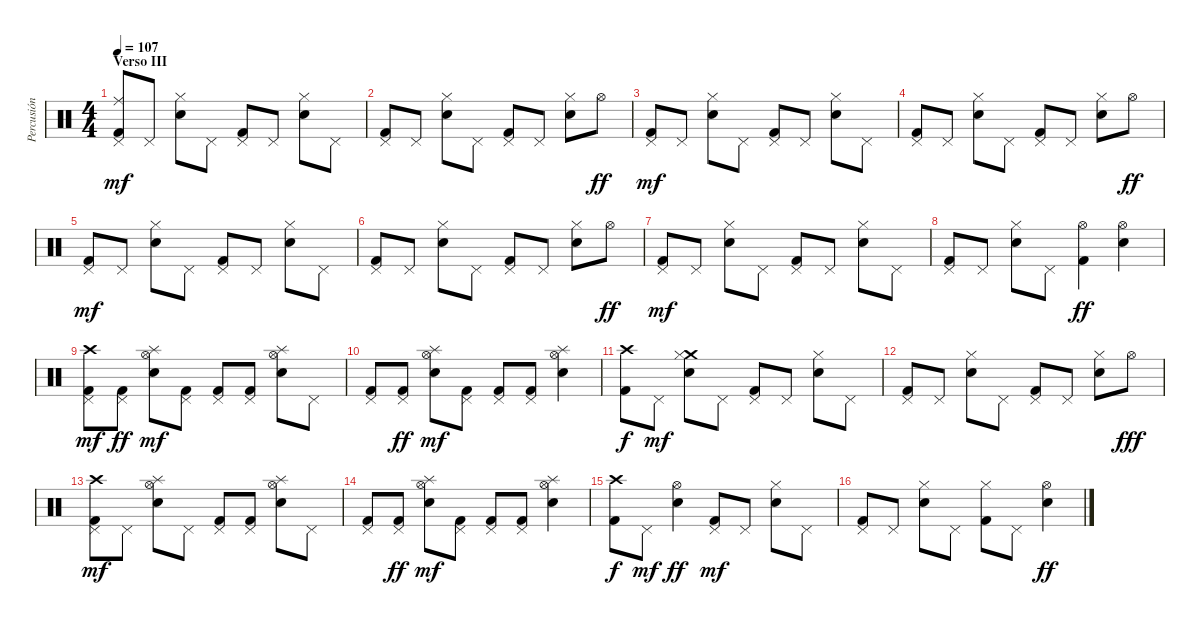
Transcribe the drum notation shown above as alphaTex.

\track ("Percusión" "Percusión") {instrument percussion}
\staff {score}
\articulation defaults
\ts (4 4)
\section ("" "Verso III")
\tempo 107
\clef neutral
\ks c
("Ride (middle)" "Pedal Hi-Hat (hit)" "Kick (hit) 2").8{dy mf} "Pedal Hi-Hat (hit)".8 ("Hi-Hat (closed)" "Snare (hit) 2").8 "Pedal Hi-Hat (hit)".8 ("Pedal Hi-Hat (hit)" "Kick (hit) 2").8 "Pedal Hi-Hat (hit)".8 ("Hi-Hat (closed)" "Snare (hit) 2").8 "Pedal Hi-Hat (hit)".8 |
("Pedal Hi-Hat (hit)" "Kick (hit) 2").8 "Pedal Hi-Hat (hit)".8 ("Hi-Hat (closed)" "Snare (hit) 2").8 "Pedal Hi-Hat (hit)".8 ("Pedal Hi-Hat (hit)" "Kick (hit) 2").8 "Pedal Hi-Hat (hit)".8 ("Hi-Hat (closed)" "Snare (hit) 2").8 "Hi-Hat (open)".8{dy ff} |
("Pedal Hi-Hat (hit)" "Kick (hit) 2").8{dy mf} "Pedal Hi-Hat (hit)".8 ("Hi-Hat (closed)" "Snare (hit) 2").8 "Pedal Hi-Hat (hit)".8 ("Pedal Hi-Hat (hit)" "Kick (hit) 2").8 "Pedal Hi-Hat (hit)".8 ("Hi-Hat (closed)" "Snare (hit) 2").8 "Pedal Hi-Hat (hit)".8 |
("Pedal Hi-Hat (hit)" "Kick (hit) 2").8 "Pedal Hi-Hat (hit)".8 ("Hi-Hat (closed)" "Snare (hit) 2").8 "Pedal Hi-Hat (hit)".8 ("Pedal Hi-Hat (hit)" "Kick (hit) 2").8 "Pedal Hi-Hat (hit)".8 ("Hi-Hat (closed)" "Snare (hit) 2").8 "Hi-Hat (open)".8{dy ff} |
("Pedal Hi-Hat (hit)" "Kick (hit) 2").8{dy mf} "Pedal Hi-Hat (hit)".8 ("Hi-Hat (closed)" "Snare (hit) 2").8 "Pedal Hi-Hat (hit)".8 ("Pedal Hi-Hat (hit)" "Kick (hit) 2").8 "Pedal Hi-Hat (hit)".8 ("Hi-Hat (closed)" "Snare (hit) 2").8 "Pedal Hi-Hat (hit)".8 |
("Pedal Hi-Hat (hit)" "Kick (hit) 2").8 "Pedal Hi-Hat (hit)".8 ("Hi-Hat (closed)" "Snare (hit) 2").8 "Pedal Hi-Hat (hit)".8 ("Pedal Hi-Hat (hit)" "Kick (hit) 2").8 "Pedal Hi-Hat (hit)".8 ("Hi-Hat (closed)" "Snare (hit) 2").8 "Hi-Hat (open)".8{dy ff} |
("Pedal Hi-Hat (hit)" "Kick (hit) 2").8{dy mf} "Pedal Hi-Hat (hit)".8 ("Hi-Hat (closed)" "Snare (hit) 2").8 "Pedal Hi-Hat (hit)".8 ("Pedal Hi-Hat (hit)" "Kick (hit) 2").8 "Pedal Hi-Hat (hit)".8 ("Hi-Hat (closed)" "Snare (hit) 2").8 "Pedal Hi-Hat (hit)".8 |
("Pedal Hi-Hat (hit)" "Kick (hit) 2").8 "Pedal Hi-Hat (hit)".8 ("Hi-Hat (closed)" "Snare (hit) 2").8 "Pedal Hi-Hat (hit)".8 ("Hi-Hat (open)" "Kick (hit) 2").4{dy ff} ("Hi-Hat (open)" "Snare (hit) 2").4 |
("Crash high (hit)" "Pedal Hi-Hat (hit)" "Kick (hit) 2").8{dy mf} ("Pedal Hi-Hat (hit)" "Kick (hit) 2").8{dy ff} ("Splash (hit)" "Hi-Hat (open)" "Snare (hit) 2").8{dy mf} ("Pedal Hi-Hat (hit)" "Kick (hit) 2").8 ("Pedal Hi-Hat (hit)" "Kick (hit) 2").8 ("Pedal Hi-Hat (hit)" "Kick (hit) 2").8 ("Splash (hit)" "Hi-Hat (open)" "Snare (hit) 2").8 "Pedal Hi-Hat (hit)".8 |
("Pedal Hi-Hat (hit)" "Kick (hit) 2").8 ("Pedal Hi-Hat (hit)" "Kick (hit) 2").8{dy ff} ("Splash (hit)" "Hi-Hat (open)" "Snare (hit) 2").8{dy mf} ("Pedal Hi-Hat (hit)" "Kick (hit) 2").8 ("Pedal Hi-Hat (hit)" "Kick (hit) 2").8 ("Pedal Hi-Hat (hit)" "Kick (hit) 2").8 ("Splash (hit)" "Hi-Hat (open)" "Snare (hit) 2").4 |
("Crash high (hit)" "Kick (hit) 2").8{dy f} "Pedal Hi-Hat (hit)".8{dy mf} ("Crash medium (hit)" "Hi-Hat (closed)" "Snare (hit) 2").8 "Pedal Hi-Hat (hit)".8 ("Pedal Hi-Hat (hit)" "Kick (hit) 2").8 "Pedal Hi-Hat (hit)".8 ("Hi-Hat (closed)" "Snare (hit) 2").8 "Pedal Hi-Hat (hit)".8 |
("Pedal Hi-Hat (hit)" "Kick (hit) 2").8 "Pedal Hi-Hat (hit)".8 ("Hi-Hat (closed)" "Snare (hit) 2").8 "Pedal Hi-Hat (hit)".8 ("Pedal Hi-Hat (hit)" "Kick (hit) 2").8 "Pedal Hi-Hat (hit)".8 ("Hi-Hat (closed)" "Snare (hit) 2").8 "Hi-Hat (open)".8{dy fff} |
("Crash high (hit)" "Pedal Hi-Hat (hit)" "Kick (hit) 2").8{dy mf} "Pedal Hi-Hat (hit)".8 ("Splash (hit)" "Hi-Hat (open)" "Snare (hit) 2").8 "Pedal Hi-Hat (hit)".8 ("Pedal Hi-Hat (hit)" "Kick (hit) 2").8 ("Pedal Hi-Hat (hit)" "Kick (hit) 2").8 ("Splash (hit)" "Hi-Hat (open)" "Snare (hit) 2").8 "Pedal Hi-Hat (hit)".8 |
("Pedal Hi-Hat (hit)" "Kick (hit) 2").8 ("Pedal Hi-Hat (hit)" "Kick (hit) 2").8{dy ff} ("Splash (hit)" "Hi-Hat (open)" "Snare (hit) 2").8{dy mf} ("Pedal Hi-Hat (hit)" "Kick (hit) 2").8 ("Pedal Hi-Hat (hit)" "Kick (hit) 2").8 ("Pedal Hi-Hat (hit)" "Kick (hit) 2").8 ("Splash (hit)" "Hi-Hat (open)" "Snare (hit) 2").4 |
("Crash high (hit)" "Kick (hit) 2").8{dy f} "Pedal Hi-Hat (hit)".8{dy mf} ("Hi-Hat (open)" "Snare (hit) 2").4{dy ff} ("Pedal Hi-Hat (hit)" "Kick (hit) 2").8{dy mf} "Pedal Hi-Hat (hit)".8 ("Hi-Hat (closed)" "Snare (hit) 2").8 "Pedal Hi-Hat (hit)".8 |
("Pedal Hi-Hat (hit)" "Kick (hit) 2").8 "Pedal Hi-Hat (hit)".8 ("Hi-Hat (closed)" "Snare (hit) 2").8 "Pedal Hi-Hat (hit)".8 ("Hi-Hat (closed)" "Kick (hit) 2").8 "Pedal Hi-Hat (hit)".8 ("Hi-Hat (open)" "Snare (hit) 2").4{dy ff}
